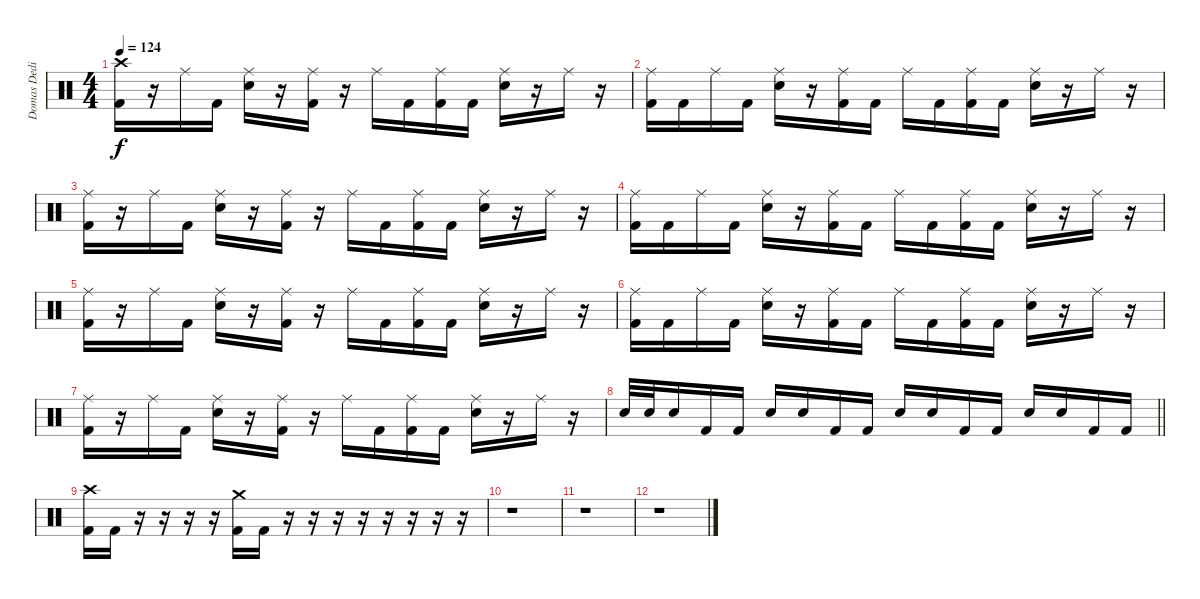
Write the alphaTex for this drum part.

\track ("Domas Dedinas" "Domas Dedi") {instrument percussion}
\staff {score}
\articulation defaults
\ts (4 4)
\tempo 124
\clef neutral
\ks c
("Crash high (hit)" "Kick (hit) 2").16{dy f} r.16 "Ride (middle)".16 "Kick (hit) 2".16 ("Ride (middle)" "Snare (hit) 2").16 r.16 ("Ride (middle)" "Kick (hit) 2").16 r.16 "Ride (middle)".16 "Kick (hit) 2".16 ("Ride (middle)" "Kick (hit) 2").16 "Kick (hit) 2".16 ("Ride (middle)" "Snare (hit) 2").16 r.16 "Ride (middle)".16 r.16 |
("Ride (middle)" "Kick (hit) 2").16 "Kick (hit) 2".16 "Ride (middle)".16 "Kick (hit) 2".16 ("Ride (middle)" "Snare (hit) 2").16 r.16 ("Ride (middle)" "Kick (hit) 2").16 "Kick (hit) 2".16 "Ride (middle)".16 "Kick (hit) 2".16 ("Ride (middle)" "Kick (hit) 2").16 "Kick (hit) 2".16 ("Ride (middle)" "Snare (hit) 2").16 r.16 "Ride (middle)".16 r.16 |
("Ride (middle)" "Kick (hit) 2").16 r.16 "Ride (middle)".16 "Kick (hit) 2".16 ("Ride (middle)" "Snare (hit) 2").16 r.16 ("Ride (middle)" "Kick (hit) 2").16 r.16 "Ride (middle)".16 "Kick (hit) 2".16 ("Ride (middle)" "Kick (hit) 2").16 "Kick (hit) 2".16 ("Ride (middle)" "Snare (hit) 2").16 r.16 "Ride (middle)".16 r.16 |
("Ride (middle)" "Kick (hit) 2").16 "Kick (hit) 2".16 "Ride (middle)".16 "Kick (hit) 2".16 ("Ride (middle)" "Snare (hit) 2").16 r.16 ("Ride (middle)" "Kick (hit) 2").16 "Kick (hit) 2".16 "Ride (middle)".16 "Kick (hit) 2".16 ("Ride (middle)" "Kick (hit) 2").16 "Kick (hit) 2".16 ("Ride (middle)" "Snare (hit) 2").16 r.16 "Ride (middle)".16 r.16 |
("Ride (middle)" "Kick (hit) 2").16 r.16 "Ride (middle)".16 "Kick (hit) 2".16 ("Ride (middle)" "Snare (hit) 2").16 r.16 ("Ride (middle)" "Kick (hit) 2").16 r.16 "Ride (middle)".16 "Kick (hit) 2".16 ("Ride (middle)" "Kick (hit) 2").16 "Kick (hit) 2".16 ("Ride (middle)" "Snare (hit) 2").16 r.16 "Ride (middle)".16 r.16 |
("Ride (middle)" "Kick (hit) 2").16 "Kick (hit) 2".16 "Ride (middle)".16 "Kick (hit) 2".16 ("Ride (middle)" "Snare (hit) 2").16 r.16 ("Ride (middle)" "Kick (hit) 2").16 "Kick (hit) 2".16 "Ride (middle)".16 "Kick (hit) 2".16 ("Ride (middle)" "Kick (hit) 2").16 "Kick (hit) 2".16 ("Ride (middle)" "Snare (hit) 2").16 r.16 "Ride (middle)".16 r.16 |
("Ride (middle)" "Kick (hit) 2").16 r.16 "Ride (middle)".16 "Kick (hit) 2".16 ("Ride (middle)" "Snare (hit) 2").16 r.16 ("Ride (middle)" "Kick (hit) 2").16 r.16 "Ride (middle)".16 "Kick (hit) 2".16 ("Ride (middle)" "Kick (hit) 2").16 "Kick (hit) 2".16 ("Ride (middle)" "Snare (hit) 2").16 r.16 "Ride (middle)".16 r.16 |
\barLineRight lightlight "Snare (hit) 2".32 "Snare (hit) 2".32 "Snare (hit) 2".16 "Kick (hit) 2".16 "Kick (hit) 2".16 "Snare (hit) 2".16 "Snare (hit) 2".16 "Kick (hit) 2".16 "Kick (hit) 2".16 "Snare (hit) 2".16 "Snare (hit) 2".16 "Kick (hit) 2".16 "Kick (hit) 2".16 "Snare (hit) 2".16 "Snare (hit) 2".16 "Kick (hit) 2".16 "Kick (hit) 2".16
|
("Crash high (hit)" "Kick (hit) 2").16 "Kick (hit) 2".16 r.16 r.16 r.16 r.16 ("Crash medium (hit)" "Kick (hit) 2").16 "Kick (hit) 2".16 r.16 r.16 r.16 r.16 r.16 r.16 r.16 r.16 |
r.1 |
r.1 |
r.1
